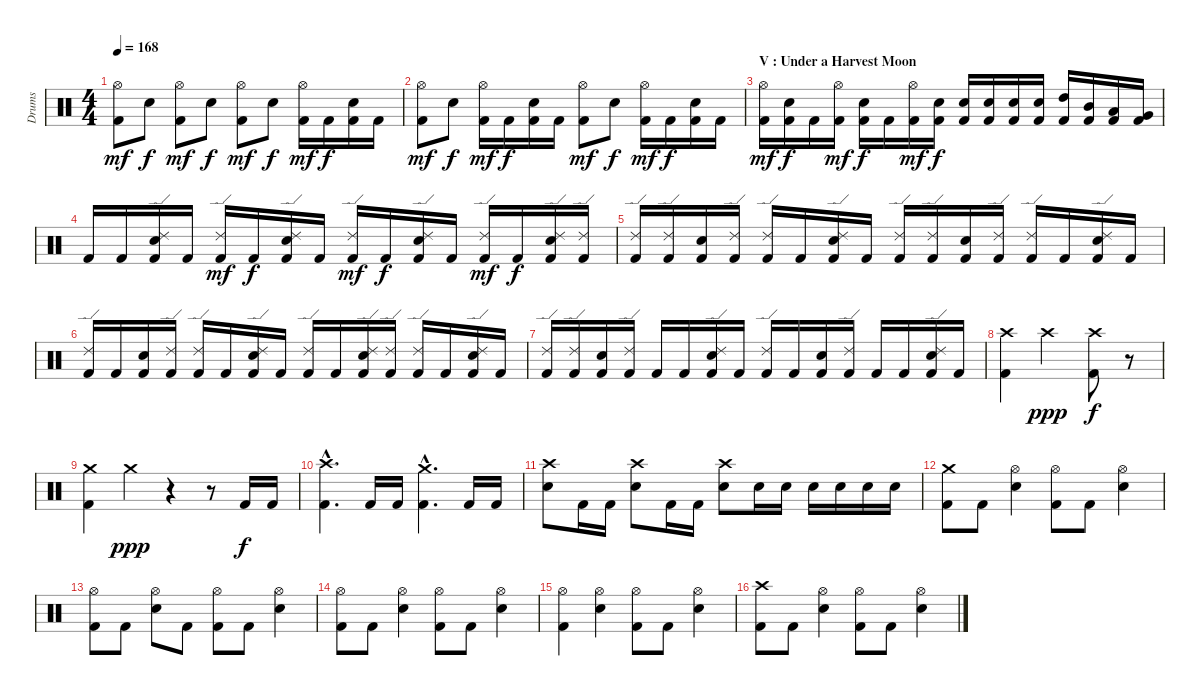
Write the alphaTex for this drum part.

\track ("Drums" "Drums") {instrument percussion}
\staff {score}
\articulation defaults
\ts (4 4)
\tempo 168
\clef neutral
\ks c
("Kick (hit) 2" "Hi-Hat (open)").8{dy mf} "Electric Snare (hit)".8{dy f} ("Kick (hit) 2" "Hi-Hat (open)").8{dy mf} "Electric Snare (hit)".8{dy f} ("Kick (hit) 2" "Hi-Hat (open)").8{dy mf} "Electric Snare (hit)".8{dy f} ("Kick (hit) 2" "Hi-Hat (open)").16{dy mf} "Kick (hit) 2".16{dy f} ("Kick (hit) 2" "Electric Snare (hit)").16 "Kick (hit) 2".16 |
("Kick (hit) 2" "Hi-Hat (open)").8{dy mf} "Electric Snare (hit)".8{dy f} ("Kick (hit) 2" "Hi-Hat (open)").16{dy mf} "Kick (hit) 2".16{dy f} ("Kick (hit) 2" "Electric Snare (hit)").16 "Kick (hit) 2".16 ("Kick (hit) 2" "Hi-Hat (open)").8{dy mf} "Electric Snare (hit)".8{dy f} ("Kick (hit) 2" "Hi-Hat (open)").16{dy mf} "Kick (hit) 2".16{dy f} ("Kick (hit) 2" "Electric Snare (hit)").16 "Kick (hit) 2".16 |
\section ("" "V : Under a Harvest Moon")
("Kick (hit) 2" "Hi-Hat (open)").16{dy mf} ("Kick (hit) 2" "Electric Snare (hit)").16{dy f} "Kick (hit) 2".16 ("Kick (hit) 2" "Hi-Hat (open)").16{dy mf} ("Kick (hit) 2" "Electric Snare (hit)").16{dy f} "Kick (hit) 2".16 ("Kick (hit) 2" "Hi-Hat (open)").16{dy mf} ("Kick (hit) 2" "Electric Snare (hit)").16{dy f} ("Kick (hit) 2" "Electric Snare (hit)").16 ("Kick (hit) 2" "Electric Snare (hit)").16 ("Kick (hit) 2" "Electric Snare (hit)").16 ("Kick (hit) 2" "Electric Snare (hit)").16 ("Kick (hit) 2" "High Tom (hit)").16 ("Kick (hit) 2" "Mid Tom (hit)").16 ("Kick (hit) 2" "Low Tom (hit)").16 ("Kick (hit) 2" "Very Low Tom (hit)").16 |
"Kick (hit) 2".16 "Kick (hit) 2".16 ("Kick (hit) 2" "Electric Snare (hit)" "Ride (edge) 2").16 "Kick (hit) 2".16 ("Kick (hit) 2" "Ride (edge) 2").16{dy mf} "Kick (hit) 2".16{dy f} ("Kick (hit) 2" "Electric Snare (hit)" "Ride (edge) 2").16 "Kick (hit) 2".16 ("Kick (hit) 2" "Ride (edge) 2").16{dy mf} "Kick (hit) 2".16{dy f} ("Kick (hit) 2" "Electric Snare (hit)" "Ride (edge) 2").16 "Kick (hit) 2".16 ("Kick (hit) 2" "Ride (edge) 2").16{dy mf} "Kick (hit) 2".16{dy f} ("Kick (hit) 2" "Electric Snare (hit)" "Ride (edge) 2").16 ("Kick (hit) 2" "Ride (edge) 2").16 |
("Kick (hit) 2" "Ride (edge) 2").16 ("Kick (hit) 2" "Ride (edge) 2").16 ("Kick (hit) 2" "Electric Snare (hit)").16 ("Kick (hit) 2" "Ride (edge) 2").16 ("Kick (hit) 2" "Ride (edge) 2").16 "Kick (hit) 2".16 ("Kick (hit) 2" "Electric Snare (hit)" "Ride (edge) 2").16 "Kick (hit) 2".16 ("Kick (hit) 2" "Ride (edge) 2").16 ("Kick (hit) 2" "Ride (edge) 2").16 ("Kick (hit) 2" "Electric Snare (hit)").16 ("Kick (hit) 2" "Ride (edge) 2").16 ("Kick (hit) 2" "Ride (edge) 2").16 "Kick (hit) 2".16 ("Kick (hit) 2" "Electric Snare (hit)" "Ride (edge) 2").16 "Kick (hit) 2".16 |
("Kick (hit) 2" "Ride (edge) 2").16 "Kick (hit) 2".16 ("Kick (hit) 2" "Electric Snare (hit)").16 ("Kick (hit) 2" "Ride (edge) 2").16 ("Kick (hit) 2" "Ride (edge) 2").16 "Kick (hit) 2".16 ("Kick (hit) 2" "Electric Snare (hit)" "Ride (edge) 2").16 "Kick (hit) 2".16 ("Kick (hit) 2" "Ride (edge) 2").16 "Kick (hit) 2".16 ("Kick (hit) 2" "Electric Snare (hit)" "Ride (edge) 2").16 ("Kick (hit) 2" "Ride (edge) 2").16 ("Kick (hit) 2" "Ride (edge) 2").16 "Kick (hit) 2".16 ("Kick (hit) 2" "Electric Snare (hit)" "Ride (edge) 2").16 "Kick (hit) 2".16 |
("Kick (hit) 2" "Ride (edge) 2").16 ("Kick (hit) 2" "Ride (edge) 2").16 ("Kick (hit) 2" "Electric Snare (hit)").16 ("Kick (hit) 2" "Ride (edge) 2").16 "Kick (hit) 2".16 "Kick (hit) 2".16 ("Kick (hit) 2" "Electric Snare (hit)" "Ride (edge) 2").16 "Kick (hit) 2".16 ("Kick (hit) 2" "Ride (edge) 2").16 "Kick (hit) 2".16 ("Kick (hit) 2" "Electric Snare (hit)").16 ("Kick (hit) 2" "Ride (edge) 2").16 "Kick (hit) 2".16 "Kick (hit) 2".16 ("Kick (hit) 2" "Electric Snare (hit)" "Ride (edge) 2").16 "Kick (hit) 2".16 |
("Kick (hit) 2" "Crash high (hit)").4 "Crash high (hit)".2{dy ppp} ("Kick (hit) 2" "Crash high (hit)").8{dy f} r.8 |
("Kick (hit) 2" "Crash medium (hit)").4 "Crash medium (hit)".4{dy ppp} r.4 r.8 "Kick (hit) 2".16{dy f} "Kick (hit) 2".16 |
("Kick (hit) 2"{hac} "Crash high (hit)"{hac}).4{d} "Kick (hit) 2".16 "Kick (hit) 2".16 ("Kick (hit) 2"{hac} "Crash medium (hit)"{hac}).4{d} "Kick (hit) 2".16 "Kick (hit) 2".16 |
("Electric Snare (hit)" "Crash high (hit)").8 "Kick (hit) 2".16 "Kick (hit) 2".16 ("Electric Snare (hit)" "Crash high (hit)").8 "Kick (hit) 2".16 "Kick (hit) 2".16 ("Electric Snare (hit)" "Crash high (hit)").8 "Electric Snare (hit)".16 "Electric Snare (hit)".16 "Electric Snare (hit)".16 "Electric Snare (hit)".16 "Electric Snare (hit)".16 "Electric Snare (hit)".16 |
\section ("" "")
("Kick (hit) 2" "Crash medium (hit)").8 "Kick (hit) 2".8 ("Electric Snare (hit)" "Hi-Hat (open)").4 ("Kick (hit) 2" "Hi-Hat (open)").8 "Kick (hit) 2".8 ("Electric Snare (hit)" "Hi-Hat (open)").4 |
("Kick (hit) 2" "Hi-Hat (open)").8 "Kick (hit) 2".8 ("Electric Snare (hit)" "Hi-Hat (open)").8 "Kick (hit) 2".8 ("Kick (hit) 2" "Hi-Hat (open)").8 "Kick (hit) 2".8 ("Electric Snare (hit)" "Hi-Hat (open)").4 |
("Kick (hit) 2" "Hi-Hat (open)").8 "Kick (hit) 2".8 ("Electric Snare (hit)" "Hi-Hat (open)").4 ("Kick (hit) 2" "Hi-Hat (open)").8 "Kick (hit) 2".8 ("Electric Snare (hit)" "Hi-Hat (open)").4 |
("Kick (hit) 2" "Hi-Hat (open)").4 ("Electric Snare (hit)" "Hi-Hat (open)").4 ("Kick (hit) 2" "Hi-Hat (open)").8 "Kick (hit) 2".8 ("Electric Snare (hit)" "Hi-Hat (open)").4 |
("Kick (hit) 2" "Crash high (hit)").8 "Kick (hit) 2".8 ("Electric Snare (hit)" "Hi-Hat (open)").4 ("Kick (hit) 2" "Hi-Hat (open)").8 "Kick (hit) 2".8 ("Electric Snare (hit)" "Hi-Hat (open)").4
